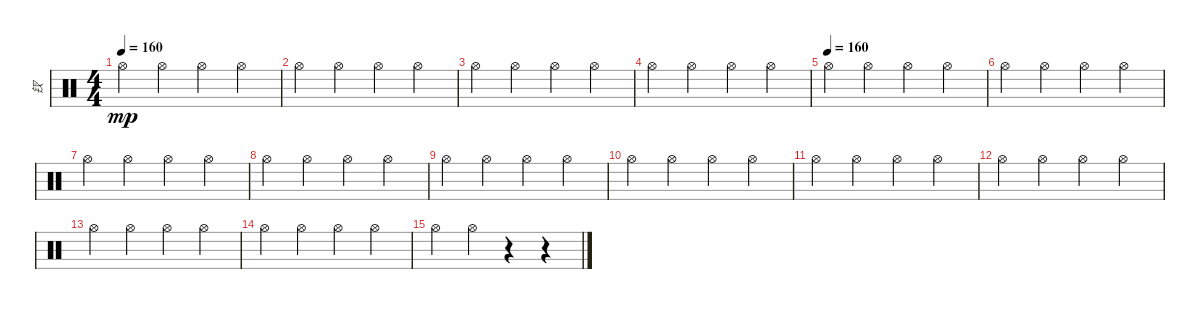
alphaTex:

\track ("钗" "钗") {instrument percussion}
\staff {score}
\articulation defaults
\ts (4 4)
\tempo 160
\clef neutral
\ks c "Hi-Hat (open)".4{dy mp} "Hi-Hat (open)".4 "Hi-Hat (open)".4 "Hi-Hat (open)".4
|
"Hi-Hat (open)".4 "Hi-Hat (open)".4 "Hi-Hat (open)".4 "Hi-Hat (open)".4 |
"Hi-Hat (open)".4 "Hi-Hat (open)".4 "Hi-Hat (open)".4 "Hi-Hat (open)".4 |
"Hi-Hat (open)".4 "Hi-Hat (open)".4 "Hi-Hat (open)".4 "Hi-Hat (open)".4 |
\tempo (160)
"Hi-Hat (open)".4 "Hi-Hat (open)".4 "Hi-Hat (open)".4 "Hi-Hat (open)".4 |
"Hi-Hat (open)".4 "Hi-Hat (open)".4 "Hi-Hat (open)".4 "Hi-Hat (open)".4 |
"Hi-Hat (open)".4 "Hi-Hat (open)".4 "Hi-Hat (open)".4 "Hi-Hat (open)".4 |
"Hi-Hat (open)".4 "Hi-Hat (open)".4 "Hi-Hat (open)".4 "Hi-Hat (open)".4 |
"Hi-Hat (open)".4 "Hi-Hat (open)".4 "Hi-Hat (open)".4 "Hi-Hat (open)".4 |
"Hi-Hat (open)".4 "Hi-Hat (open)".4 "Hi-Hat (open)".4 "Hi-Hat (open)".4 |
"Hi-Hat (open)".4 "Hi-Hat (open)".4 "Hi-Hat (open)".4 "Hi-Hat (open)".4 |
"Hi-Hat (open)".4 "Hi-Hat (open)".4 "Hi-Hat (open)".4 "Hi-Hat (open)".4 |
"Hi-Hat (open)".4 "Hi-Hat (open)".4 "Hi-Hat (open)".4 "Hi-Hat (open)".4 |
"Hi-Hat (open)".4 "Hi-Hat (open)".4 "Hi-Hat (open)".4 "Hi-Hat (open)".4 |
"Hi-Hat (open)".4 "Hi-Hat (open)".4 r.4 r.4
